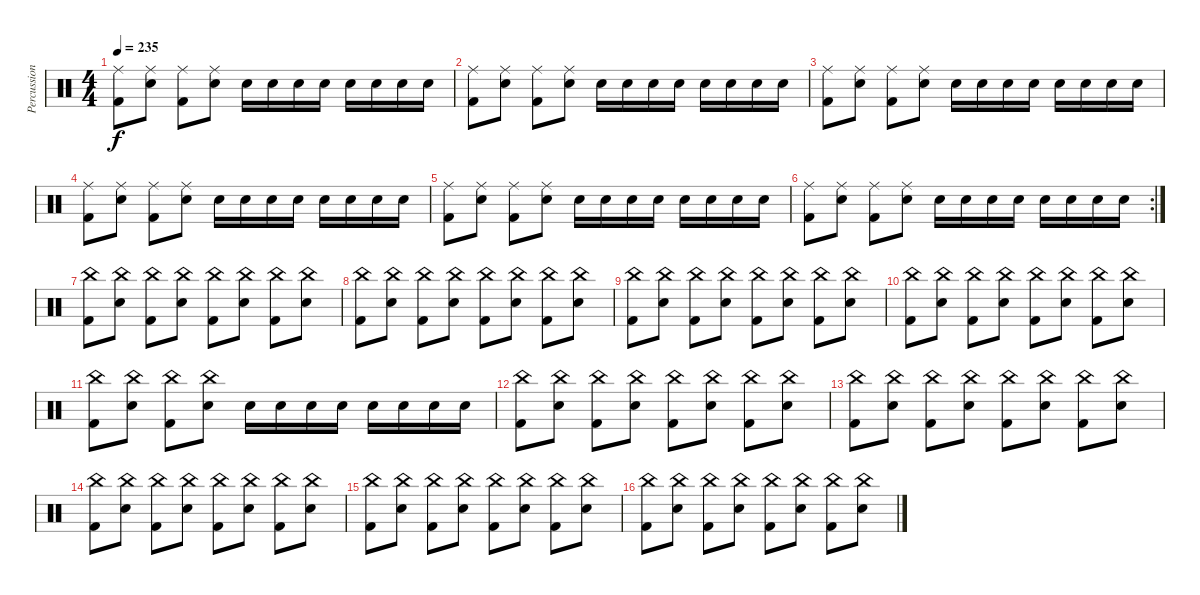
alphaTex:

\track ("Percussion- Scott Raynor" "Percussion") {instrument percussion}
\staff {score}
\articulation defaults
\ts (4 4)
\tempo 235
\clef neutral
\ks c
("Ride (middle)" "Kick (hit) 2").8{dy f} ("Ride (middle)" "Snare (hit) 2").8 ("Ride (middle)" "Kick (hit) 2").8 ("Ride (middle)" "Snare (hit) 2").8 "Snare (hit) 2".16 "Snare (hit) 2".16 "Snare (hit) 2".16 "Snare (hit) 2".16 "Snare (hit) 2".16 "Snare (hit) 2".16 "Snare (hit) 2".16 "Snare (hit) 2".16 |
("Ride (middle)" "Kick (hit) 2").8 ("Ride (middle)" "Snare (hit) 2").8 ("Ride (middle)" "Kick (hit) 2").8 ("Ride (middle)" "Snare (hit) 2").8 "Snare (hit) 2".16 "Snare (hit) 2".16 "Snare (hit) 2".16 "Snare (hit) 2".16 "Snare (hit) 2".16 "Snare (hit) 2".16 "Snare (hit) 2".16 "Snare (hit) 2".16 |
("Ride (middle)" "Kick (hit) 2").8 ("Ride (middle)" "Snare (hit) 2").8 ("Ride (middle)" "Kick (hit) 2").8 ("Ride (middle)" "Snare (hit) 2").8 "Snare (hit) 2".16 "Snare (hit) 2".16 "Snare (hit) 2".16 "Snare (hit) 2".16 "Snare (hit) 2".16 "Snare (hit) 2".16 "Snare (hit) 2".16 "Snare (hit) 2".16 |
("Ride (middle)" "Kick (hit) 2").8 ("Ride (middle)" "Snare (hit) 2").8 ("Ride (middle)" "Kick (hit) 2").8 ("Ride (middle)" "Snare (hit) 2").8 "Snare (hit) 2".16 "Snare (hit) 2".16 "Snare (hit) 2".16 "Snare (hit) 2".16 "Snare (hit) 2".16 "Snare (hit) 2".16 "Snare (hit) 2".16 "Snare (hit) 2".16 |
("Ride (middle)" "Kick (hit) 2").8 ("Ride (middle)" "Snare (hit) 2").8 ("Ride (middle)" "Kick (hit) 2").8 ("Ride (middle)" "Snare (hit) 2").8 "Snare (hit) 2".16 "Snare (hit) 2".16 "Snare (hit) 2".16 "Snare (hit) 2".16 "Snare (hit) 2".16 "Snare (hit) 2".16 "Snare (hit) 2".16 "Snare (hit) 2".16 |
\rc 2
("Ride (middle)" "Kick (hit) 2").8 ("Ride (middle)" "Snare (hit) 2").8 ("Ride (middle)" "Kick (hit) 2").8 ("Ride (middle)" "Snare (hit) 2").8 "Snare (hit) 2".16 "Snare (hit) 2".16 "Snare (hit) 2".16 "Snare (hit) 2".16 "Snare (hit) 2".16 "Snare (hit) 2".16 "Snare (hit) 2".16 "Snare (hit) 2".16 |
("China (hit)" "Kick (hit) 2").8 ("China (hit)" "Snare (hit) 2").8 ("China (hit)" "Kick (hit) 2").8 ("China (hit)" "Snare (hit) 2").8 ("China (hit)" "Kick (hit) 2").8 ("China (hit)" "Snare (hit) 2").8 ("China (hit)" "Kick (hit) 2").8 ("China (hit)" "Snare (hit) 2").8 |
("China (hit)" "Kick (hit) 2").8 ("China (hit)" "Snare (hit) 2").8 ("China (hit)" "Kick (hit) 2").8 ("China (hit)" "Snare (hit) 2").8 ("China (hit)" "Kick (hit) 2").8 ("China (hit)" "Snare (hit) 2").8 ("China (hit)" "Kick (hit) 2").8 ("China (hit)" "Snare (hit) 2").8 |
("China (hit)" "Kick (hit) 2").8 ("China (hit)" "Snare (hit) 2").8 ("China (hit)" "Kick (hit) 2").8 ("China (hit)" "Snare (hit) 2").8 ("China (hit)" "Kick (hit) 2").8 ("China (hit)" "Snare (hit) 2").8 ("China (hit)" "Kick (hit) 2").8 ("China (hit)" "Snare (hit) 2").8 |
("China (hit)" "Kick (hit) 2").8 ("China (hit)" "Snare (hit) 2").8 ("China (hit)" "Kick (hit) 2").8 ("China (hit)" "Snare (hit) 2").8 ("China (hit)" "Kick (hit) 2").8 ("China (hit)" "Snare (hit) 2").8 ("China (hit)" "Kick (hit) 2").8 ("China (hit)" "Snare (hit) 2").8 |
("China (hit)" "Kick (hit) 2").8 ("China (hit)" "Snare (hit) 2").8 ("China (hit)" "Kick (hit) 2").8 ("China (hit)" "Snare (hit) 2").8 "Snare (hit) 2".16 "Snare (hit) 2".16 "Snare (hit) 2".16 "Snare (hit) 2".16 "Snare (hit) 2".16 "Snare (hit) 2".16 "Snare (hit) 2".16 "Snare (hit) 2".16 |
("China (hit)" "Kick (hit) 2").8 ("China (hit)" "Snare (hit) 2").8 ("China (hit)" "Kick (hit) 2").8 ("China (hit)" "Snare (hit) 2").8 ("China (hit)" "Kick (hit) 2").8 ("China (hit)" "Snare (hit) 2").8 ("China (hit)" "Kick (hit) 2").8 ("China (hit)" "Snare (hit) 2").8 |
("China (hit)" "Kick (hit) 2").8 ("China (hit)" "Snare (hit) 2").8 ("China (hit)" "Kick (hit) 2").8 ("China (hit)" "Snare (hit) 2").8 ("China (hit)" "Kick (hit) 2").8 ("China (hit)" "Snare (hit) 2").8 ("China (hit)" "Kick (hit) 2").8 ("China (hit)" "Snare (hit) 2").8 |
("China (hit)" "Kick (hit) 2").8 ("China (hit)" "Snare (hit) 2").8 ("China (hit)" "Kick (hit) 2").8 ("China (hit)" "Snare (hit) 2").8 ("China (hit)" "Kick (hit) 2").8 ("China (hit)" "Snare (hit) 2").8 ("China (hit)" "Kick (hit) 2").8 ("China (hit)" "Snare (hit) 2").8 |
("China (hit)" "Kick (hit) 2").8 ("China (hit)" "Snare (hit) 2").8 ("China (hit)" "Kick (hit) 2").8 ("China (hit)" "Snare (hit) 2").8 ("China (hit)" "Kick (hit) 2").8 ("China (hit)" "Snare (hit) 2").8 ("China (hit)" "Kick (hit) 2").8 ("China (hit)" "Snare (hit) 2").8 |
("China (hit)" "Kick (hit) 2").8 ("China (hit)" "Snare (hit) 2").8 ("China (hit)" "Kick (hit) 2").8 ("China (hit)" "Snare (hit) 2").8 ("China (hit)" "Kick (hit) 2").8 ("China (hit)" "Snare (hit) 2").8 ("China (hit)" "Kick (hit) 2").8 ("China (hit)" "Snare (hit) 2").8
